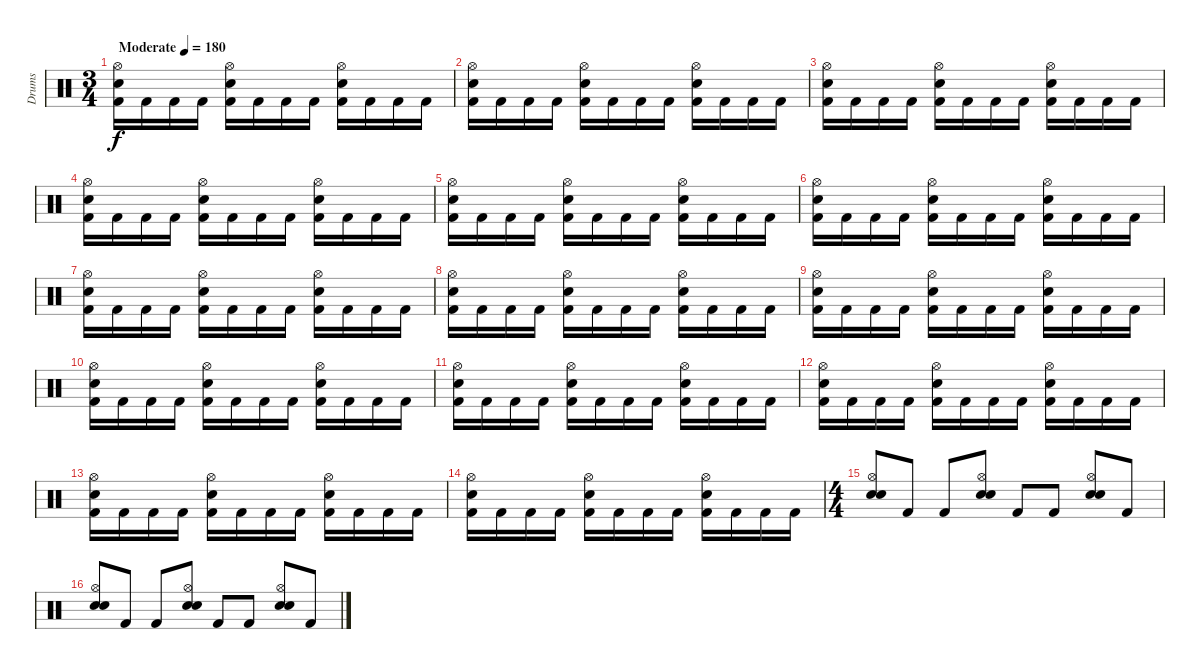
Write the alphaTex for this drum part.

\track ("Drums" "Drums") {instrument percussion}
\staff {score}
\articulation defaults
\ts (3 4)
\tempo (180 "Moderate")
\clef neutral
\ks c
("Kick (hit) 2" "Snare (hit) 2" "Hi-Hat (open)").16{dy f} "Kick (hit) 2".16 "Kick (hit) 2".16 "Kick (hit) 2".16 ("Kick (hit) 2" "Snare (hit) 2" "Hi-Hat (open)").16 "Kick (hit) 2".16 "Kick (hit) 2".16 "Kick (hit) 2".16 ("Kick (hit) 2" "Snare (hit) 2" "Hi-Hat (open)").16 "Kick (hit) 2".16 "Kick (hit) 2".16 "Kick (hit) 2".16 |
("Kick (hit) 2" "Snare (hit) 2" "Hi-Hat (open)").16 "Kick (hit) 2".16 "Kick (hit) 2".16 "Kick (hit) 2".16 ("Kick (hit) 2" "Snare (hit) 2" "Hi-Hat (open)").16 "Kick (hit) 2".16 "Kick (hit) 2".16 "Kick (hit) 2".16 ("Kick (hit) 2" "Snare (hit) 2" "Hi-Hat (open)").16 "Kick (hit) 2".16 "Kick (hit) 2".16 "Kick (hit) 2".16 |
("Kick (hit) 2" "Snare (hit) 2" "Hi-Hat (open)").16 "Kick (hit) 2".16 "Kick (hit) 2".16 "Kick (hit) 2".16 ("Kick (hit) 2" "Snare (hit) 2" "Hi-Hat (open)").16 "Kick (hit) 2".16 "Kick (hit) 2".16 "Kick (hit) 2".16 ("Kick (hit) 2" "Snare (hit) 2" "Hi-Hat (open)").16 "Kick (hit) 2".16 "Kick (hit) 2".16 "Kick (hit) 2".16 |
("Kick (hit) 2" "Snare (hit) 2" "Hi-Hat (open)").16 "Kick (hit) 2".16 "Kick (hit) 2".16 "Kick (hit) 2".16 ("Kick (hit) 2" "Snare (hit) 2" "Hi-Hat (open)").16 "Kick (hit) 2".16 "Kick (hit) 2".16 "Kick (hit) 2".16 ("Kick (hit) 2" "Snare (hit) 2" "Hi-Hat (open)").16 "Kick (hit) 2".16 "Kick (hit) 2".16 "Kick (hit) 2".16 |
("Kick (hit) 2" "Snare (hit) 2" "Hi-Hat (open)").16 "Kick (hit) 2".16 "Kick (hit) 2".16 "Kick (hit) 2".16 ("Kick (hit) 2" "Snare (hit) 2" "Hi-Hat (open)").16 "Kick (hit) 2".16 "Kick (hit) 2".16 "Kick (hit) 2".16 ("Kick (hit) 2" "Snare (hit) 2" "Hi-Hat (open)").16 "Kick (hit) 2".16 "Kick (hit) 2".16 "Kick (hit) 2".16 |
("Kick (hit) 2" "Snare (hit) 2" "Hi-Hat (open)").16 "Kick (hit) 2".16 "Kick (hit) 2".16 "Kick (hit) 2".16 ("Kick (hit) 2" "Snare (hit) 2" "Hi-Hat (open)").16 "Kick (hit) 2".16 "Kick (hit) 2".16 "Kick (hit) 2".16 ("Kick (hit) 2" "Snare (hit) 2" "Hi-Hat (open)").16 "Kick (hit) 2".16 "Kick (hit) 2".16 "Kick (hit) 2".16 |
("Kick (hit) 2" "Snare (hit) 2" "Hi-Hat (open)").16 "Kick (hit) 2".16 "Kick (hit) 2".16 "Kick (hit) 2".16 ("Kick (hit) 2" "Snare (hit) 2" "Hi-Hat (open)").16 "Kick (hit) 2".16 "Kick (hit) 2".16 "Kick (hit) 2".16 ("Kick (hit) 2" "Snare (hit) 2" "Hi-Hat (open)").16 "Kick (hit) 2".16 "Kick (hit) 2".16 "Kick (hit) 2".16 |
("Kick (hit) 2" "Snare (hit) 2" "Hi-Hat (open)").16 "Kick (hit) 2".16 "Kick (hit) 2".16 "Kick (hit) 2".16 ("Kick (hit) 2" "Snare (hit) 2" "Hi-Hat (open)").16 "Kick (hit) 2".16 "Kick (hit) 2".16 "Kick (hit) 2".16 ("Kick (hit) 2" "Snare (hit) 2" "Hi-Hat (open)").16 "Kick (hit) 2".16 "Kick (hit) 2".16 "Kick (hit) 2".16 |
("Kick (hit) 2" "Snare (hit) 2" "Hi-Hat (open)").16 "Kick (hit) 2".16 "Kick (hit) 2".16 "Kick (hit) 2".16 ("Kick (hit) 2" "Snare (hit) 2" "Hi-Hat (open)").16 "Kick (hit) 2".16 "Kick (hit) 2".16 "Kick (hit) 2".16 ("Kick (hit) 2" "Snare (hit) 2" "Hi-Hat (open)").16 "Kick (hit) 2".16 "Kick (hit) 2".16 "Kick (hit) 2".16 |
("Kick (hit) 2" "Snare (hit) 2" "Hi-Hat (open)").16 "Kick (hit) 2".16 "Kick (hit) 2".16 "Kick (hit) 2".16 ("Kick (hit) 2" "Snare (hit) 2" "Hi-Hat (open)").16 "Kick (hit) 2".16 "Kick (hit) 2".16 "Kick (hit) 2".16 ("Kick (hit) 2" "Snare (hit) 2" "Hi-Hat (open)").16 "Kick (hit) 2".16 "Kick (hit) 2".16 "Kick (hit) 2".16 |
("Kick (hit) 2" "Snare (hit) 2" "Hi-Hat (open)").16 "Kick (hit) 2".16 "Kick (hit) 2".16 "Kick (hit) 2".16 ("Kick (hit) 2" "Snare (hit) 2" "Hi-Hat (open)").16 "Kick (hit) 2".16 "Kick (hit) 2".16 "Kick (hit) 2".16 ("Kick (hit) 2" "Snare (hit) 2" "Hi-Hat (open)").16 "Kick (hit) 2".16 "Kick (hit) 2".16 "Kick (hit) 2".16 |
("Kick (hit) 2" "Snare (hit) 2" "Hi-Hat (open)").16 "Kick (hit) 2".16 "Kick (hit) 2".16 "Kick (hit) 2".16 ("Kick (hit) 2" "Snare (hit) 2" "Hi-Hat (open)").16 "Kick (hit) 2".16 "Kick (hit) 2".16 "Kick (hit) 2".16 ("Kick (hit) 2" "Snare (hit) 2" "Hi-Hat (open)").16 "Kick (hit) 2".16 "Kick (hit) 2".16 "Kick (hit) 2".16 |
("Kick (hit) 2" "Snare (hit) 2" "Hi-Hat (open)").16 "Kick (hit) 2".16 "Kick (hit) 2".16 "Kick (hit) 2".16 ("Kick (hit) 2" "Snare (hit) 2" "Hi-Hat (open)").16 "Kick (hit) 2".16 "Kick (hit) 2".16 "Kick (hit) 2".16 ("Kick (hit) 2" "Snare (hit) 2" "Hi-Hat (open)").16 "Kick (hit) 2".16 "Kick (hit) 2".16 "Kick (hit) 2".16 |
("Kick (hit) 2" "Snare (hit) 2" "Hi-Hat (open)").16 "Kick (hit) 2".16 "Kick (hit) 2".16 "Kick (hit) 2".16 ("Kick (hit) 2" "Snare (hit) 2" "Hi-Hat (open)").16 "Kick (hit) 2".16 "Kick (hit) 2".16 "Kick (hit) 2".16 ("Kick (hit) 2" "Snare (hit) 2" "Hi-Hat (open)").16 "Kick (hit) 2".16 "Kick (hit) 2".16 "Kick (hit) 2".16 |
\ts (4 4)
("Electric Snare (hit)" "Snare (hit) 2" "Hi-Hat (open)").8 "Kick (hit) 2".8 "Kick (hit) 2".8 ("Electric Snare (hit)" "Snare (hit) 2" "Hi-Hat (open)").8 "Kick (hit) 2".8 "Kick (hit) 2".8 ("Electric Snare (hit)" "Snare (hit) 2" "Hi-Hat (open)").8 "Kick (hit) 2".8 |
("Electric Snare (hit)" "Snare (hit) 2" "Hi-Hat (open)").8 "Kick (hit) 2".8 "Kick (hit) 2".8 ("Electric Snare (hit)" "Snare (hit) 2" "Hi-Hat (open)").8 "Kick (hit) 2".8 "Kick (hit) 2".8 ("Electric Snare (hit)" "Snare (hit) 2" "Hi-Hat (open)").8 "Kick (hit) 2".8
